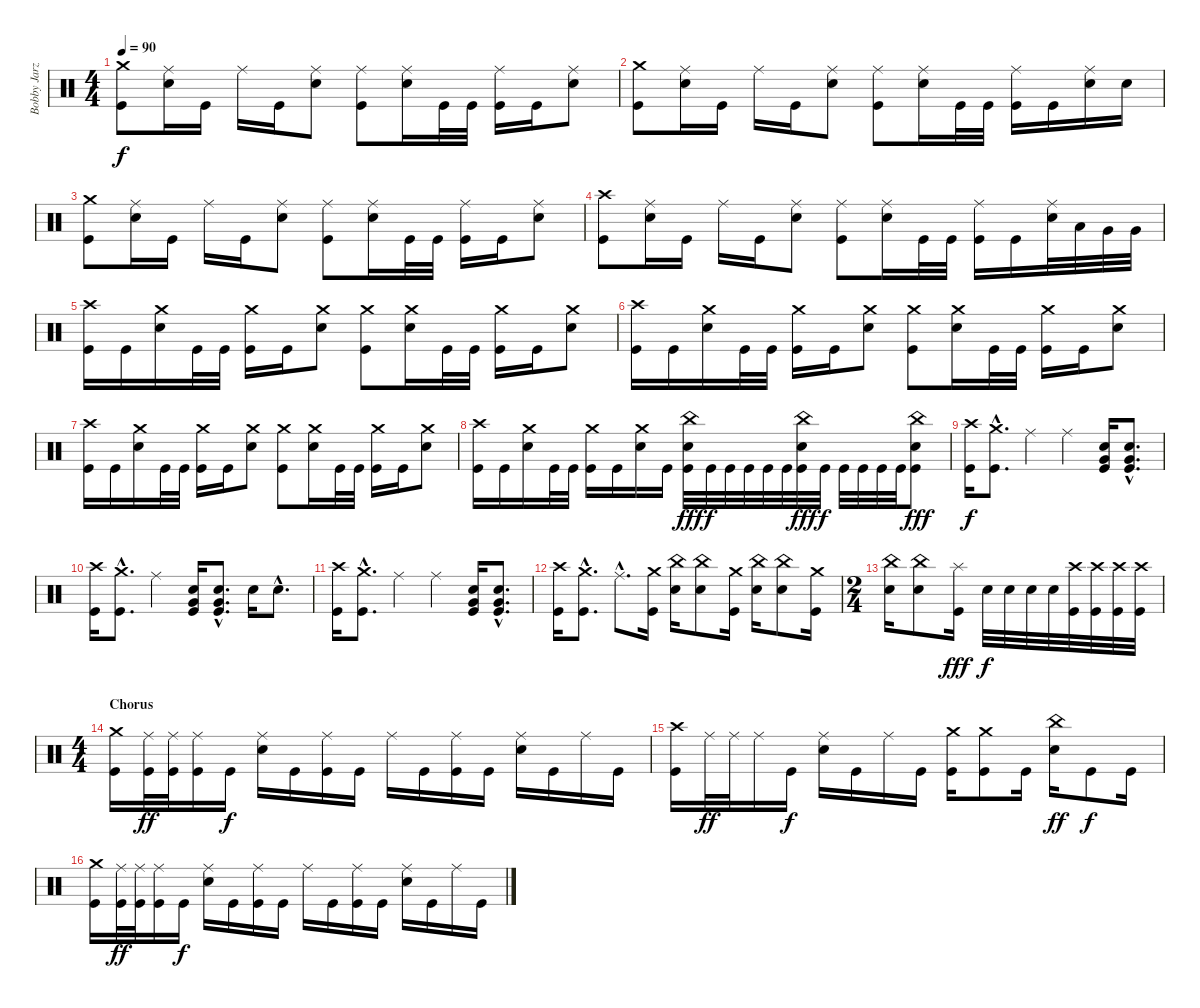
\track ("Bobby Jarzombek" "Bobby Jarz") {instrument percussion}
\staff {score}
\articulation defaults
\ts (4 4)
\tempo 90
\clef neutral
\ks c
("Crash medium (hit)" "Kick (hit)").8{dy f} ("Ride (middle)" "Electric Snare (hit)").16 "Kick (hit)".16 "Ride (middle)".16 "Kick (hit)".16 ("Ride (middle)" "Electric Snare (hit)").8 ("Ride (middle)" "Kick (hit)").8 ("Ride (middle)" "Electric Snare (hit)").16 "Kick (hit)".32 "Kick (hit)".32 ("Ride (middle)" "Kick (hit)").16 "Kick (hit)".16 ("Ride (middle)" "Electric Snare (hit)").8 |
("Crash medium (hit)" "Kick (hit)").8 ("Ride (middle)" "Electric Snare (hit)").16 "Kick (hit)".16 "Ride (middle)".16 "Kick (hit)".16 ("Ride (middle)" "Electric Snare (hit)").8 ("Ride (middle)" "Kick (hit)").8 ("Ride (middle)" "Electric Snare (hit)").16 "Kick (hit)".32 "Kick (hit)".32 ("Ride (middle)" "Kick (hit)").16 "Kick (hit)".16 ("Ride (middle)" "Electric Snare (hit)").16 "Electric Snare (hit)".16 |
("Crash medium (hit)" "Kick (hit)").8 ("Ride (middle)" "Electric Snare (hit)").16 "Kick (hit)".16 "Ride (middle)".16 "Kick (hit)".16 ("Ride (middle)" "Electric Snare (hit)").8 ("Ride (middle)" "Kick (hit)").8 ("Ride (middle)" "Electric Snare (hit)").16 "Kick (hit)".32 "Kick (hit)".32 ("Ride (middle)" "Kick (hit)").16 "Kick (hit)".16 ("Ride (middle)" "Electric Snare (hit)").8 |
("Crash high (hit)" "Kick (hit)").8 ("Ride (middle)" "Electric Snare (hit)").16 "Kick (hit)".16 "Ride (middle)".16 "Kick (hit)".16 ("Ride (middle)" "Electric Snare (hit)").8 ("Ride (middle)" "Kick (hit)").8 ("Ride (middle)" "Electric Snare (hit)").16 "Kick (hit)".32 "Kick (hit)".32 ("Ride (middle)" "Kick (hit)").16 "Kick (hit)".16 ("Ride (middle)" "Electric Snare (hit)").32 "Low Tom (hit)".32 "Very Low Tom (hit)".32 "Very Low Tom (hit)".32 |
("Crash high (hit)" "Kick (hit)").16 "Kick (hit)".16 ("Crash medium (hit)" "Electric Snare (hit)").16 "Kick (hit)".32 "Kick (hit)".32 ("Crash medium (hit)" "Kick (hit)").16 "Kick (hit)".16 ("Crash medium (hit)" "Electric Snare (hit)").8 ("Crash medium (hit)" "Kick (hit)").8 ("Crash medium (hit)" "Electric Snare (hit)").16 "Kick (hit)".32 "Kick (hit)".32 ("Crash medium (hit)" "Kick (hit)").16 "Kick (hit)".16 ("Crash medium (hit)" "Electric Snare (hit)").8 |
("Crash high (hit)" "Kick (hit)").16 "Kick (hit)".16 ("Crash medium (hit)" "Electric Snare (hit)").16 "Kick (hit)".32 "Kick (hit)".32 ("Crash medium (hit)" "Kick (hit)").16 "Kick (hit)".16 ("Crash medium (hit)" "Electric Snare (hit)").8 ("Crash medium (hit)" "Kick (hit)").8 ("Crash medium (hit)" "Electric Snare (hit)").16 "Kick (hit)".32 "Kick (hit)".32 ("Crash medium (hit)" "Kick (hit)").16 "Kick (hit)".16 ("Crash medium (hit)" "Electric Snare (hit)").8 |
("Crash high (hit)" "Kick (hit)").16 "Kick (hit)".16 ("Crash medium (hit)" "Electric Snare (hit)").16 "Kick (hit)".32 "Kick (hit)".32 ("Crash medium (hit)" "Kick (hit)").16 "Kick (hit)".16 ("Crash medium (hit)" "Electric Snare (hit)").8 ("Crash medium (hit)" "Kick (hit)").8 ("Crash medium (hit)" "Electric Snare (hit)").16 "Kick (hit)".32 "Kick (hit)".32 ("Crash medium (hit)" "Kick (hit)").16 "Kick (hit)".16 ("Crash medium (hit)" "Electric Snare (hit)").8 |
("Crash high (hit)" "Kick (hit)").16 "Kick (hit)".16 ("Crash medium (hit)" "Electric Snare (hit)").16 "Kick (hit)".32 "Kick (hit)".32 ("Crash medium (hit)" "Kick (hit)").16 "Kick (hit)".16 ("Crash medium (hit)" "Electric Snare (hit)").16 "Kick (hit)".16 ("China (hit)" "Electric Snare (hit)" "Kick (hit)").32{dy fff} "Kick (hit)".32{dy f} "Kick (hit)".32 "Kick (hit)".32 "Kick (hit)".32 "Kick (hit)".32 ("China (hit)" "Electric Snare (hit)" "Kick (hit)").32{dy fff} "Kick (hit)".32{dy f} "Kick (hit)".32 "Kick (hit)".32 "Kick (hit)".32 "Kick (hit)".32 ("China (hit)" "Electric Snare (hit)" "Kick (hit)").8{dy fff} |
("Crash high (hit)" "Kick (hit)").16{dy f} ("Crash medium (hit)"{hac} "Kick (hit)"{hac}).8{d} "Ride (middle)".4 "Ride (middle)".4 ("Very Low Tom (hit)" "Electric Snare (hit)" "Kick (hit)").16 ("Very Low Tom (hit)"{hac} "Electric Snare (hit)"{hac} "Kick (hit)"{hac}).8{d} |
("Crash high (hit)" "Kick (hit)").16 ("Crash medium (hit)"{hac} "Kick (hit)"{hac}).8{d} "Ride (middle)".4 ("Very Low Tom (hit)" "Electric Snare (hit)" "Kick (hit)").16 ("Very Low Tom (hit)"{hac} "Electric Snare (hit)"{hac} "Kick (hit)"{hac}).8{d} "Electric Snare (hit)".16 "Electric Snare (hit)"{hac}.8{d} |
("Crash high (hit)" "Kick (hit)").16 ("Crash medium (hit)"{hac} "Kick (hit)"{hac}).8{d} "Ride (middle)".4 "Ride (middle)".4 ("Very Low Tom (hit)" "Electric Snare (hit)" "Kick (hit)").16 ("Very Low Tom (hit)"{hac} "Electric Snare (hit)"{hac} "Kick (hit)"{hac}).8{d} |
("Crash high (hit)" "Kick (hit)").16 ("Crash medium (hit)"{hac} "Kick (hit)"{hac}).8{d} "Ride (middle)"{hac}.8{d} ("Crash medium (hit)" "Kick (hit)").16 ("China (hit)" "Electric Snare (hit)").16 ("China (hit)" "Electric Snare (hit)").8 ("Crash medium (hit)" "Kick (hit)").16 ("China (hit)" "Electric Snare (hit)").16 ("China (hit)" "Electric Snare (hit)").8 ("Crash medium (hit)" "Kick (hit)").16 |
\ts (2 4)
("China (hit)" "Electric Snare (hit)").16 ("China (hit)" "Electric Snare (hit)").8 ("Splash (hit)" "Kick (hit)").16{dy fff} "Electric Snare (hit)".32{dy f} "Electric Snare (hit)".32 "Electric Snare (hit)".32 "Electric Snare (hit)".32 ("Crash high (hit)" "Kick (hit)").32 ("Crash high (hit)" "Kick (hit)").32 ("Crash high (hit)" "Kick (hit)").32 ("Crash high (hit)" "Kick (hit)").32 |
\ts (4 4)
\section ("" "Chorus")
("Crash medium (hit)" "Kick (hit)").16 ("Ride (middle)" "Kick (hit)").32{dy ff} ("Ride (middle)" "Kick (hit)").32 ("Ride (middle)" "Kick (hit)").16 "Kick (hit)".16{dy f} ("Ride (middle)" "Electric Snare (hit)").16 "Kick (hit)".16 ("Ride (middle)" "Kick (hit)").16 "Kick (hit)".16 "Ride (middle)".16 "Kick (hit)".16 ("Ride (middle)" "Kick (hit)").16 "Kick (hit)".16 ("Ride (middle)" "Electric Snare (hit)").16 "Kick (hit)".16 "Ride (middle)".16 "Kick (hit)".16 |
("Crash high (hit)" "Kick (hit)").16 "Ride (middle)".32{dy ff} "Ride (middle)".32 "Ride (middle)".16 "Kick (hit)".16{dy f} ("Ride (middle)" "Electric Snare (hit)").16 "Kick (hit)".16 "Ride (middle)".16 "Kick (hit)".16 ("Crash medium (hit)" "Kick (hit)").16 ("Crash medium (hit)" "Kick (hit)").8 "Kick (hit)".16 ("China (hit)" "Electric Snare (hit)").16{dy ff} "Kick (hit)".8{dy f} "Kick (hit)".16 |
("Crash medium (hit)" "Kick (hit)").16 ("Ride (middle)" "Kick (hit)").32{dy ff} ("Ride (middle)" "Kick (hit)").32 ("Ride (middle)" "Kick (hit)").16 "Kick (hit)".16{dy f} ("Ride (middle)" "Electric Snare (hit)").16 "Kick (hit)".16 ("Ride (middle)" "Kick (hit)").16 "Kick (hit)".16 "Ride (middle)".16 "Kick (hit)".16 ("Ride (middle)" "Kick (hit)").16 "Kick (hit)".16 ("Ride (middle)" "Electric Snare (hit)").16 "Kick (hit)".16 "Ride (middle)".16 "Kick (hit)".16
